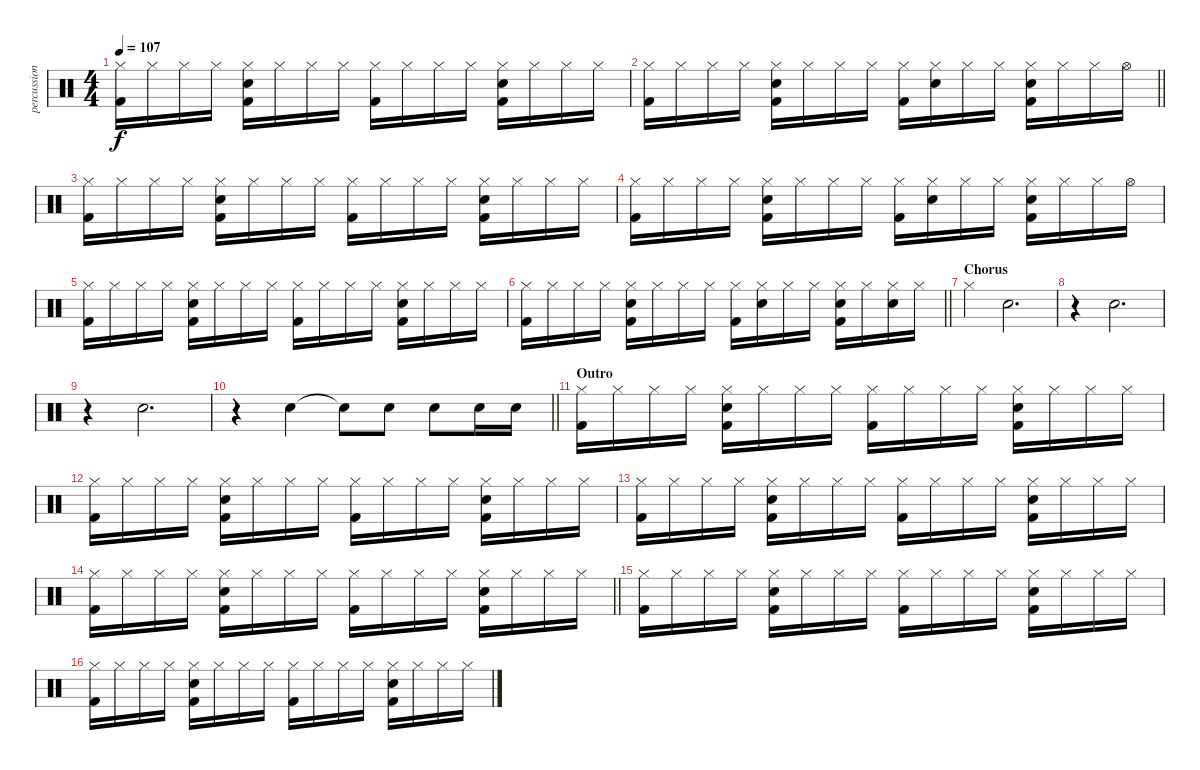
\track ("percussion" "percussion") {instrument percussion}
\staff {score}
\articulation defaults
\ts (4 4)
\tempo 107
\clef neutral
\ks c
("Hi-Hat (closed)" "Kick (hit) 2").16{dy f} "Hi-Hat (closed)".16 "Hi-Hat (closed)".16 "Hi-Hat (closed)".16 ("Snare (hit) 2" "Hi-Hat (closed)" "Kick (hit) 2").16 "Hi-Hat (closed)".16 "Hi-Hat (closed)".16 "Hi-Hat (closed)".16 ("Hi-Hat (closed)" "Kick (hit) 2").16 "Hi-Hat (closed)".16 "Hi-Hat (closed)".16 "Hi-Hat (closed)".16 ("Snare (hit) 2" "Hi-Hat (closed)" "Kick (hit) 2").16 "Hi-Hat (closed)".16 "Hi-Hat (closed)".16 "Hi-Hat (closed)".16 |
\barLineRight lightlight
("Hi-Hat (closed)" "Kick (hit) 2").16 "Hi-Hat (closed)".16 "Hi-Hat (closed)".16 "Hi-Hat (closed)".16 ("Snare (hit) 2" "Hi-Hat (closed)" "Kick (hit) 2").16 "Hi-Hat (closed)".16 "Hi-Hat (closed)".16 "Hi-Hat (closed)".16 ("Hi-Hat (closed)" "Kick (hit) 2").16 ("Snare (hit) 2" "Hi-Hat (closed)").16 "Hi-Hat (closed)".16 "Hi-Hat (closed)".16 ("Snare (hit) 2" "Hi-Hat (closed)" "Kick (hit) 2").16 "Hi-Hat (closed)".16 "Hi-Hat (closed)".16 "Hi-Hat (open)".16 |
("Hi-Hat (closed)" "Kick (hit) 2").16 "Hi-Hat (closed)".16 "Hi-Hat (closed)".16 "Hi-Hat (closed)".16 ("Snare (hit) 2" "Hi-Hat (closed)" "Kick (hit) 2").16 "Hi-Hat (closed)".16 "Hi-Hat (closed)".16 "Hi-Hat (closed)".16 ("Hi-Hat (closed)" "Kick (hit) 2").16 "Hi-Hat (closed)".16 "Hi-Hat (closed)".16 "Hi-Hat (closed)".16 ("Snare (hit) 2" "Hi-Hat (closed)" "Kick (hit) 2").16 "Hi-Hat (closed)".16 "Hi-Hat (closed)".16 "Hi-Hat (closed)".16 |
("Hi-Hat (closed)" "Kick (hit) 2").16 "Hi-Hat (closed)".16 "Hi-Hat (closed)".16 "Hi-Hat (closed)".16 ("Snare (hit) 2" "Hi-Hat (closed)" "Kick (hit) 2").16 "Hi-Hat (closed)".16 "Hi-Hat (closed)".16 "Hi-Hat (closed)".16 ("Hi-Hat (closed)" "Kick (hit) 2").16 ("Snare (hit) 2" "Hi-Hat (closed)").16 "Hi-Hat (closed)".16 "Hi-Hat (closed)".16 ("Snare (hit) 2" "Hi-Hat (closed)" "Kick (hit) 2").16 "Hi-Hat (closed)".16 "Hi-Hat (closed)".16 "Hi-Hat (open)".16 |
("Hi-Hat (closed)" "Kick (hit) 2").16 "Hi-Hat (closed)".16 "Hi-Hat (closed)".16 "Hi-Hat (closed)".16 ("Snare (hit) 2" "Hi-Hat (closed)" "Kick (hit) 2").16 "Hi-Hat (closed)".16 "Hi-Hat (closed)".16 "Hi-Hat (closed)".16 ("Hi-Hat (closed)" "Kick (hit) 2").16 "Hi-Hat (closed)".16 "Hi-Hat (closed)".16 "Hi-Hat (closed)".16 ("Snare (hit) 2" "Hi-Hat (closed)" "Kick (hit) 2").16 "Hi-Hat (closed)".16 "Hi-Hat (closed)".16 "Hi-Hat (closed)".16 |
\barLineRight lightlight
("Hi-Hat (closed)" "Kick (hit) 2").16 "Hi-Hat (closed)".16 "Hi-Hat (closed)".16 "Hi-Hat (closed)".16 ("Snare (hit) 2" "Hi-Hat (closed)" "Kick (hit) 2").16 "Hi-Hat (closed)".16 "Hi-Hat (closed)".16 "Hi-Hat (closed)".16 ("Hi-Hat (closed)" "Kick (hit) 2").16 ("Snare (hit) 2" "Hi-Hat (closed)").16 "Hi-Hat (closed)".16 "Hi-Hat (closed)".16 ("Snare (hit) 2" "Hi-Hat (closed)" "Kick (hit) 2").16 "Hi-Hat (closed)".16 ("Snare (hit) 2" "Hi-Hat (closed)").16 "Hi-Hat (closed)".16 |
\section ("" "Chorus")
"Hi-Hat (closed)".4 "Snare (hit) 2".2{d} |
r.4 "Snare (hit) 2".2{d} |
r.4 "Snare (hit) 2".2{d} |
\barLineRight lightlight
r.4 "Snare (hit) 2".4 "Snare (hit)"{t}.8 "Snare (hit) 2".8 "Snare (hit) 2".8 "Snare (hit) 2".16 "Snare (hit) 2".16 |
\section ("" "Outro")
("Hi-Hat (closed)" "Kick (hit) 2").16 "Hi-Hat (closed)".16 "Hi-Hat (closed)".16 "Hi-Hat (closed)".16 ("Snare (hit) 2" "Hi-Hat (closed)" "Kick (hit) 2").16 "Hi-Hat (closed)".16 "Hi-Hat (closed)".16 "Hi-Hat (closed)".16 ("Hi-Hat (closed)" "Kick (hit) 2").16 "Hi-Hat (closed)".16 "Hi-Hat (closed)".16 "Hi-Hat (closed)".16 ("Snare (hit) 2" "Hi-Hat (closed)" "Kick (hit) 2").16 "Hi-Hat (closed)".16 "Hi-Hat (closed)".16 "Hi-Hat (closed)".16 |
("Hi-Hat (closed)" "Kick (hit) 2").16 "Hi-Hat (closed)".16 "Hi-Hat (closed)".16 "Hi-Hat (closed)".16 ("Snare (hit) 2" "Hi-Hat (closed)" "Kick (hit) 2").16 "Hi-Hat (closed)".16 "Hi-Hat (closed)".16 "Hi-Hat (closed)".16 ("Hi-Hat (closed)" "Kick (hit) 2").16 "Hi-Hat (closed)".16 "Hi-Hat (closed)".16 "Hi-Hat (closed)".16 ("Snare (hit) 2" "Hi-Hat (closed)" "Kick (hit) 2").16 "Hi-Hat (closed)".16 "Hi-Hat (closed)".16 "Hi-Hat (closed)".16 |
("Hi-Hat (closed)" "Kick (hit) 2").16 "Hi-Hat (closed)".16 "Hi-Hat (closed)".16 "Hi-Hat (closed)".16 ("Snare (hit) 2" "Hi-Hat (closed)" "Kick (hit) 2").16 "Hi-Hat (closed)".16 "Hi-Hat (closed)".16 "Hi-Hat (closed)".16 ("Hi-Hat (closed)" "Kick (hit) 2").16 "Hi-Hat (closed)".16 "Hi-Hat (closed)".16 "Hi-Hat (closed)".16 ("Snare (hit) 2" "Hi-Hat (closed)" "Kick (hit) 2").16 "Hi-Hat (closed)".16 "Hi-Hat (closed)".16 "Hi-Hat (closed)".16 |
\barLineRight lightlight
("Hi-Hat (closed)" "Kick (hit) 2").16 "Hi-Hat (closed)".16 "Hi-Hat (closed)".16 "Hi-Hat (closed)".16 ("Snare (hit) 2" "Hi-Hat (closed)" "Kick (hit) 2").16 "Hi-Hat (closed)".16 "Hi-Hat (closed)".16 "Hi-Hat (closed)".16 ("Hi-Hat (closed)" "Kick (hit) 2").16 "Hi-Hat (closed)".16 "Hi-Hat (closed)".16 "Hi-Hat (closed)".16 ("Snare (hit) 2" "Hi-Hat (closed)" "Kick (hit) 2").16 "Hi-Hat (closed)".16 "Hi-Hat (closed)".16 "Hi-Hat (closed)".16 |
("Hi-Hat (closed)" "Kick (hit) 2").16 "Hi-Hat (closed)".16 "Hi-Hat (closed)".16 "Hi-Hat (closed)".16 ("Snare (hit) 2" "Hi-Hat (closed)" "Kick (hit) 2").16 "Hi-Hat (closed)".16 "Hi-Hat (closed)".16 "Hi-Hat (closed)".16 ("Hi-Hat (closed)" "Kick (hit) 2").16 "Hi-Hat (closed)".16 "Hi-Hat (closed)".16 "Hi-Hat (closed)".16 ("Snare (hit) 2" "Hi-Hat (closed)" "Kick (hit) 2").16 "Hi-Hat (closed)".16 "Hi-Hat (closed)".16 "Hi-Hat (closed)".16 |
("Hi-Hat (closed)" "Kick (hit) 2").16 "Hi-Hat (closed)".16 "Hi-Hat (closed)".16 "Hi-Hat (closed)".16 ("Snare (hit) 2" "Hi-Hat (closed)" "Kick (hit) 2").16 "Hi-Hat (closed)".16 "Hi-Hat (closed)".16 "Hi-Hat (closed)".16 ("Hi-Hat (closed)" "Kick (hit) 2").16 "Hi-Hat (closed)".16 "Hi-Hat (closed)".16 "Hi-Hat (closed)".16 ("Snare (hit) 2" "Hi-Hat (closed)" "Kick (hit) 2").16 "Hi-Hat (closed)".16 "Hi-Hat (closed)".16 "Hi-Hat (closed)".16
